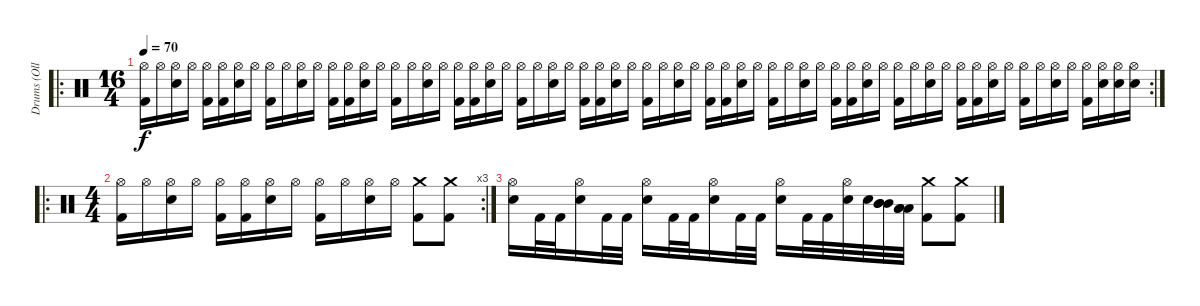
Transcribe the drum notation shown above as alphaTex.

\track ("Drums (Ollie)" "Drums (Oll") {instrument percussion}
\staff {score}
\articulation defaults
\ro
\rc 2
\ts (16 4)
\tempo 70
\clef neutral
\ks c
("Hi-Hat (open)" "Kick (hit) 2").16{dy f} "Hi-Hat (open)".16 ("Hi-Hat (open)" "Electric Snare (hit)").16 "Hi-Hat (open)".16 ("Hi-Hat (open)" "Kick (hit) 2").16 ("Hi-Hat (open)" "Kick (hit) 2").16 ("Hi-Hat (open)" "Electric Snare (hit)").16 "Hi-Hat (open)".16 ("Hi-Hat (open)" "Kick (hit) 2").16 "Hi-Hat (open)".16 ("Hi-Hat (open)" "Electric Snare (hit)").16 "Hi-Hat (open)".16 ("Hi-Hat (open)" "Kick (hit) 2").16 ("Hi-Hat (open)" "Kick (hit) 2").16 ("Hi-Hat (open)" "Electric Snare (hit)").16 "Hi-Hat (open)".16 ("Hi-Hat (open)" "Kick (hit) 2").16 "Hi-Hat (open)".16 ("Hi-Hat (open)" "Electric Snare (hit)").16 "Hi-Hat (open)".16 ("Hi-Hat (open)" "Kick (hit) 2").16 ("Hi-Hat (open)" "Kick (hit) 2").16 ("Hi-Hat (open)" "Electric Snare (hit)").16 "Hi-Hat (open)".16 ("Hi-Hat (open)" "Kick (hit) 2").16 "Hi-Hat (open)".16 ("Hi-Hat (open)" "Electric Snare (hit)").16 "Hi-Hat (open)".16 ("Hi-Hat (open)" "Kick (hit) 2").16 ("Hi-Hat (open)" "Kick (hit) 2").16 ("Hi-Hat (open)" "Electric Snare (hit)").16 "Hi-Hat (open)".16 ("Hi-Hat (open)" "Kick (hit) 2").16 "Hi-Hat (open)".16 ("Hi-Hat (open)" "Electric Snare (hit)").16 "Hi-Hat (open)".16 ("Hi-Hat (open)" "Kick (hit) 2").16 ("Hi-Hat (open)" "Kick (hit) 2").16 ("Hi-Hat (open)" "Electric Snare (hit)").16 "Hi-Hat (open)".16 ("Hi-Hat (open)" "Kick (hit) 2").16 "Hi-Hat (open)".16 ("Hi-Hat (open)" "Electric Snare (hit)").16 "Hi-Hat (open)".16 ("Hi-Hat (open)" "Kick (hit) 2").16 ("Hi-Hat (open)" "Kick (hit) 2").16 ("Hi-Hat (open)" "Electric Snare (hit)").16 "Hi-Hat (open)".16 ("Hi-Hat (open)" "Kick (hit) 2").16 "Hi-Hat (open)".16 ("Hi-Hat (open)" "Electric Snare (hit)").16 "Hi-Hat (open)".16 ("Hi-Hat (open)" "Kick (hit) 2").16 ("Hi-Hat (open)" "Kick (hit) 2").16 ("Hi-Hat (open)" "Electric Snare (hit)").16 "Hi-Hat (open)".16 ("Hi-Hat (open)" "Kick (hit) 2").16 "Hi-Hat (open)".16 ("Hi-Hat (open)" "Electric Snare (hit)").16 "Hi-Hat (open)".16 ("Hi-Hat (open)" "Kick (hit) 2").16 ("Hi-Hat (open)" "Electric Snare (hit)").16 ("Hi-Hat (open)" "Electric Snare (hit)").16 ("Hi-Hat (open)" "Electric Snare (hit)").16 |
\ro
\rc 3
\ts (4 4)
("Hi-Hat (open)" "Kick (hit) 2").16 "Hi-Hat (open)".16 ("Hi-Hat (open)" "Electric Snare (hit)").16 "Hi-Hat (open)".16 ("Hi-Hat (open)" "Kick (hit) 2").16 ("Hi-Hat (open)" "Kick (hit) 2").16 ("Hi-Hat (open)" "Electric Snare (hit)").16 "Hi-Hat (open)".16 ("Hi-Hat (open)" "Kick (hit) 2").16 "Hi-Hat (open)".16 ("Hi-Hat (open)" "Electric Snare (hit)").16 "Hi-Hat (open)".16 ("Crash medium (hit)" "Kick (hit) 2").8 ("Crash medium (hit)" "Kick (hit) 2").8 |
("Hi-Hat (open)" "Electric Snare (hit)").16 "Kick (hit) 2".32 "Kick (hit) 2".32 ("Hi-Hat (open)" "Electric Snare (hit)").16 "Kick (hit) 2".32 "Kick (hit) 2".32 ("Hi-Hat (open)" "Electric Snare (hit)").16 "Kick (hit) 2".32 "Kick (hit) 2".32 ("Hi-Hat (open)" "Electric Snare (hit)").16 "Kick (hit) 2".32 "Kick (hit) 2".32 ("Hi-Hat (open)" "Electric Snare (hit)").16 "Kick (hit) 2".32 "Kick (hit) 2".32 ("Hi-Hat (open)" "Electric Snare (hit)").32 "Electric Snare (hit)".32 ("Mid Tom (hit)" "Mid Tom (hit)" "Mid Tom (hit)").32 ("Low Tom (hit)" "Low Tom (hit)" "Low Tom (hit)").32 ("Crash medium (hit)" "Kick (hit) 2").8 ("Crash medium (hit)" "Kick (hit) 2").8
